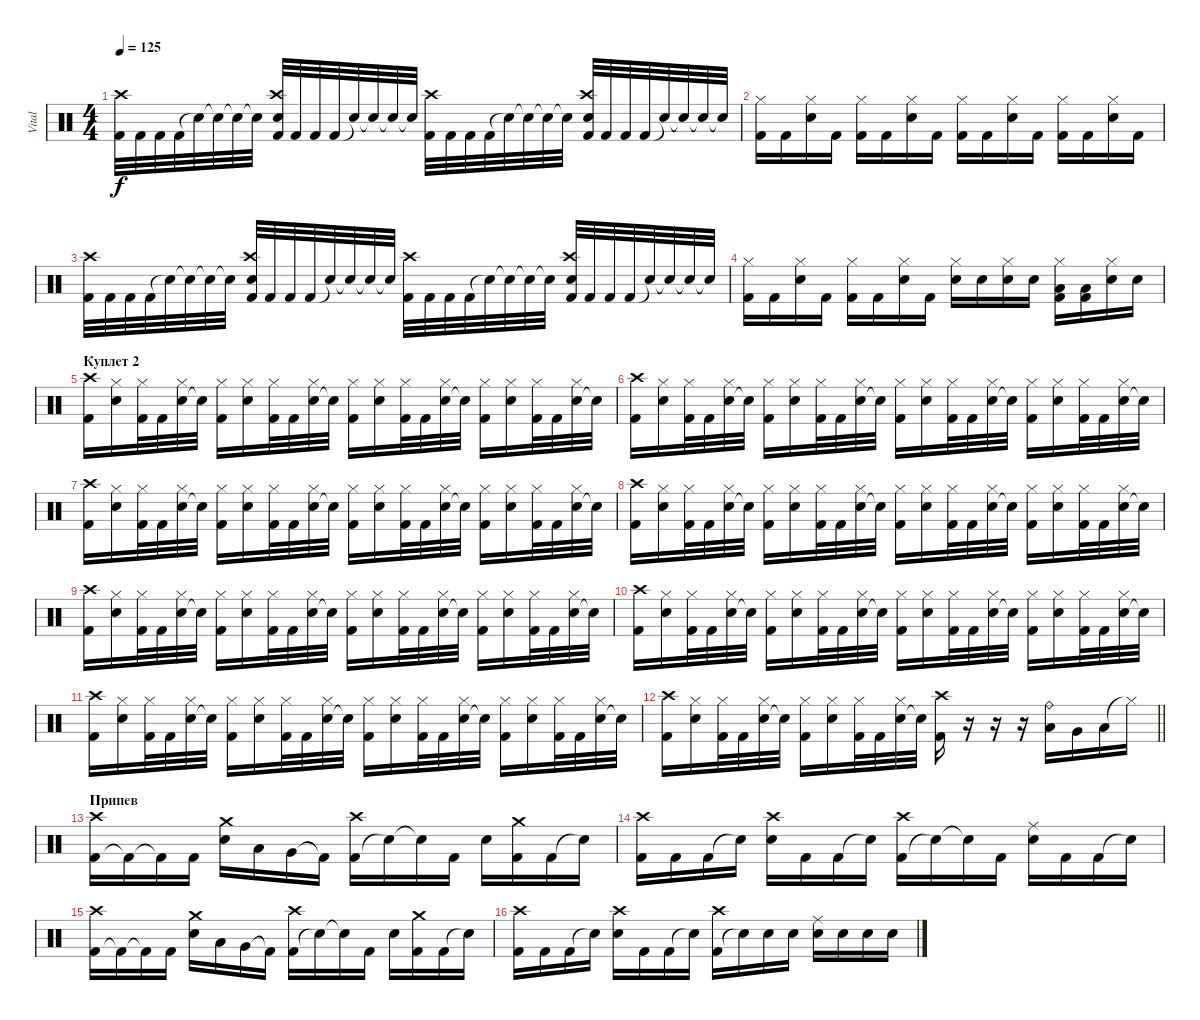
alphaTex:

\track ("Vital" "Vital") {instrument percussion}
\staff {score}
\articulation defaults
\ts (4 4)
\tempo 125
\clef neutral
\ks c
("Kick (hit) 2" "Crash high (hit)").32{dy f} "Kick (hit) 2".32 "Kick (hit) 2".32 "Kick (hit) 2".32 "Snare (hit)"{t}.32 "Snare (hit)"{t}.32 "Snare (hit)"{t}.32 "Snare (hit)"{t}.32 ("Kick (hit) 2" "Snare (hit) 2" "Crash high (hit)").32 "Kick (hit) 2".32 "Kick (hit) 2".32 "Kick (hit) 2".32 "Snare (hit)"{t}.32 "Snare (hit)"{t}.32 "Snare (hit)"{t}.32 "Snare (hit)"{t}.32 ("Kick (hit) 2" "Crash high (hit)").32 "Kick (hit) 2".32 "Kick (hit) 2".32 "Kick (hit) 2".32 "Snare (hit)"{t}.32 "Snare (hit)"{t}.32 "Snare (hit)"{t}.32 "Snare (hit)"{t}.32 ("Kick (hit) 2" "Snare (hit) 2" "Crash high (hit)").32 "Kick (hit) 2".32 "Kick (hit) 2".32 "Kick (hit) 2".32 "Snare (hit)"{t}.32 "Snare (hit)"{t}.32 "Snare (hit)"{t}.32 "Snare (hit)"{t}.32 |
("Kick (hit) 2" "Hi-Hat (closed)").16 "Kick (hit) 2".16 ("Snare (hit) 2" "Hi-Hat (closed)").16 "Kick (hit) 2".16 ("Kick (hit) 2" "Hi-Hat (closed)").16 "Kick (hit) 2".16 ("Snare (hit) 2" "Hi-Hat (closed)").16 "Kick (hit) 2".16 ("Kick (hit) 2" "Hi-Hat (closed)").16 "Kick (hit) 2".16 ("Snare (hit) 2" "Hi-Hat (closed)").16 "Kick (hit) 2".16 ("Kick (hit) 2" "Hi-Hat (closed)").16 "Kick (hit) 2".16 ("Snare (hit) 2" "Hi-Hat (closed)").16 "Kick (hit) 2".16 |
("Kick (hit) 2" "Crash high (hit)").32 "Kick (hit) 2".32 "Kick (hit) 2".32 "Kick (hit) 2".32 "Snare (hit)"{t}.32 "Snare (hit)"{t}.32 "Snare (hit)"{t}.32 "Snare (hit)"{t}.32 ("Kick (hit) 2" "Snare (hit) 2" "Crash high (hit)").32 "Kick (hit) 2".32 "Kick (hit) 2".32 "Kick (hit) 2".32 "Snare (hit)"{t}.32 "Snare (hit)"{t}.32 "Snare (hit)"{t}.32 "Snare (hit)"{t}.32 ("Kick (hit) 2" "Crash high (hit)").32 "Kick (hit) 2".32 "Kick (hit) 2".32 "Kick (hit) 2".32 "Snare (hit)"{t}.32 "Snare (hit)"{t}.32 "Snare (hit)"{t}.32 "Snare (hit)"{t}.32 ("Kick (hit) 2" "Snare (hit) 2" "Crash high (hit)").32 "Kick (hit) 2".32 "Kick (hit) 2".32 "Kick (hit) 2".32 "Snare (hit)"{t}.32 "Snare (hit)"{t}.32 "Snare (hit)"{t}.32 "Snare (hit)"{t}.32 |
("Kick (hit) 2" "Hi-Hat (closed)").16 "Kick (hit) 2".16 ("Snare (hit) 2" "Hi-Hat (closed)").16 "Kick (hit) 2".16 ("Kick (hit) 2" "Hi-Hat (closed)").16 "Kick (hit) 2".16 ("Snare (hit) 2" "Hi-Hat (closed)").16 "Kick (hit) 2".16 ("Snare (hit) 2" "Hi-Hat (closed)").16 "Snare (hit) 2".16 ("Snare (hit) 2" "Hi-Hat (closed)").16 "Snare (hit) 2".16 ("Low Floor Tom (hit)" "Kick (hit) 2" "Hi-Hat (closed)").16 ("Low Floor Tom (hit)" "Kick (hit) 2").16 ("Snare (hit) 2" "Hi-Hat (closed)").16 "Snare (hit) 2".16 |
\section ("" "Куплет 2")
("Kick (hit) 2" "Crash high (hit)").16 ("Snare (hit) 2" "Hi-Hat (closed)").16 ("Kick (hit) 2" "Hi-Hat (closed)").32 "Kick (hit) 2".32 ("Snare (hit) 2" "Hi-Hat (closed)").32 "Snare (hit) 2"{t}.32 ("Kick (hit) 2" "Hi-Hat (closed)").16 ("Snare (hit) 2" "Hi-Hat (closed)").16 ("Kick (hit) 2" "Hi-Hat (closed)").32 "Kick (hit) 2".32 ("Snare (hit) 2" "Hi-Hat (closed)").32 "Snare (hit)"{t}.32 ("Kick (hit) 2" "Hi-Hat (closed)").16 ("Snare (hit) 2" "Hi-Hat (closed)").16 ("Kick (hit) 2" "Hi-Hat (closed)").32 "Kick (hit) 2".32 ("Snare (hit) 2" "Hi-Hat (closed)").32 "Snare (hit)"{t}.32 ("Kick (hit) 2" "Hi-Hat (closed)").16 ("Snare (hit) 2" "Hi-Hat (closed)").16 ("Kick (hit) 2" "Hi-Hat (closed)").32 "Kick (hit) 2".32 ("Snare (hit) 2" "Hi-Hat (closed)").32 "Snare (hit)"{t}.32 |
("Kick (hit) 2" "Crash high (hit)").16 ("Snare (hit) 2" "Hi-Hat (closed)").16 ("Kick (hit) 2" "Hi-Hat (closed)").32 "Kick (hit) 2".32 ("Snare (hit) 2" "Hi-Hat (closed)").32 "Snare (hit) 2"{t}.32 ("Kick (hit) 2" "Hi-Hat (closed)").16 ("Snare (hit) 2" "Hi-Hat (closed)").16 ("Kick (hit) 2" "Hi-Hat (closed)").32 "Kick (hit) 2".32 ("Snare (hit) 2" "Hi-Hat (closed)").32 "Snare (hit)"{t}.32 ("Kick (hit) 2" "Hi-Hat (closed)").16 ("Snare (hit) 2" "Hi-Hat (closed)").16 ("Kick (hit) 2" "Hi-Hat (closed)").32 "Kick (hit) 2".32 ("Snare (hit) 2" "Hi-Hat (closed)").32 "Snare (hit)"{t}.32 ("Kick (hit) 2" "Hi-Hat (closed)").16 ("Snare (hit) 2" "Hi-Hat (closed)").16 ("Kick (hit) 2" "Hi-Hat (closed)").32 "Kick (hit) 2".32 ("Snare (hit) 2" "Hi-Hat (closed)").32 "Snare (hit)"{t}.32 |
("Kick (hit) 2" "Crash high (hit)").16 ("Snare (hit) 2" "Hi-Hat (closed)").16 ("Kick (hit) 2" "Hi-Hat (closed)").32 "Kick (hit) 2".32 ("Snare (hit) 2" "Hi-Hat (closed)").32 "Snare (hit) 2"{t}.32 ("Kick (hit) 2" "Hi-Hat (closed)").16 ("Snare (hit) 2" "Hi-Hat (closed)").16 ("Kick (hit) 2" "Hi-Hat (closed)").32 "Kick (hit) 2".32 ("Snare (hit) 2" "Hi-Hat (closed)").32 "Snare (hit)"{t}.32 ("Kick (hit) 2" "Hi-Hat (closed)").16 ("Snare (hit) 2" "Hi-Hat (closed)").16 ("Kick (hit) 2" "Hi-Hat (closed)").32 "Kick (hit) 2".32 ("Snare (hit) 2" "Hi-Hat (closed)").32 "Snare (hit)"{t}.32 ("Kick (hit) 2" "Hi-Hat (closed)").16 ("Snare (hit) 2" "Hi-Hat (closed)").16 ("Kick (hit) 2" "Hi-Hat (closed)").32 "Kick (hit) 2".32 ("Snare (hit) 2" "Hi-Hat (closed)").32 "Snare (hit)"{t}.32 |
("Kick (hit) 2" "Crash high (hit)").16 ("Snare (hit) 2" "Hi-Hat (closed)").16 ("Kick (hit) 2" "Hi-Hat (closed)").32 "Kick (hit) 2".32 ("Snare (hit) 2" "Hi-Hat (closed)").32 "Snare (hit) 2"{t}.32 ("Kick (hit) 2" "Hi-Hat (closed)").16 ("Snare (hit) 2" "Hi-Hat (closed)").16 ("Kick (hit) 2" "Hi-Hat (closed)").32 "Kick (hit) 2".32 ("Snare (hit) 2" "Hi-Hat (closed)").32 "Snare (hit)"{t}.32 ("Kick (hit) 2" "Hi-Hat (closed)").16 ("Snare (hit) 2" "Hi-Hat (closed)").16 ("Kick (hit) 2" "Hi-Hat (closed)").32 "Kick (hit) 2".32 ("Snare (hit) 2" "Hi-Hat (closed)").32 "Snare (hit)"{t}.32 ("Kick (hit) 2" "Hi-Hat (closed)").16 ("Snare (hit) 2" "Hi-Hat (closed)").16 ("Kick (hit) 2" "Hi-Hat (closed)").32 "Kick (hit) 2".32 ("Snare (hit) 2" "Hi-Hat (closed)").32 "Snare (hit)"{t}.32 |
("Kick (hit) 2" "Crash high (hit)").16 ("Snare (hit) 2" "Hi-Hat (closed)").16 ("Kick (hit) 2" "Hi-Hat (closed)").32 "Kick (hit) 2".32 ("Snare (hit) 2" "Hi-Hat (closed)").32 "Snare (hit) 2"{t}.32 ("Kick (hit) 2" "Hi-Hat (closed)").16 ("Snare (hit) 2" "Hi-Hat (closed)").16 ("Kick (hit) 2" "Hi-Hat (closed)").32 "Kick (hit) 2".32 ("Snare (hit) 2" "Hi-Hat (closed)").32 "Snare (hit)"{t}.32 ("Kick (hit) 2" "Hi-Hat (closed)").16 ("Snare (hit) 2" "Hi-Hat (closed)").16 ("Kick (hit) 2" "Hi-Hat (closed)").32 "Kick (hit) 2".32 ("Snare (hit) 2" "Hi-Hat (closed)").32 "Snare (hit)"{t}.32 ("Kick (hit) 2" "Hi-Hat (closed)").16 ("Snare (hit) 2" "Hi-Hat (closed)").16 ("Kick (hit) 2" "Hi-Hat (closed)").32 "Kick (hit) 2".32 ("Snare (hit) 2" "Hi-Hat (closed)").32 "Snare (hit)"{t}.32 |
("Kick (hit) 2" "Crash high (hit)").16 ("Snare (hit) 2" "Hi-Hat (closed)").16 ("Kick (hit) 2" "Hi-Hat (closed)").32 "Kick (hit) 2".32 ("Snare (hit) 2" "Hi-Hat (closed)").32 "Snare (hit) 2"{t}.32 ("Kick (hit) 2" "Hi-Hat (closed)").16 ("Snare (hit) 2" "Hi-Hat (closed)").16 ("Kick (hit) 2" "Hi-Hat (closed)").32 "Kick (hit) 2".32 ("Snare (hit) 2" "Hi-Hat (closed)").32 "Snare (hit)"{t}.32 ("Kick (hit) 2" "Hi-Hat (closed)").16 ("Snare (hit) 2" "Hi-Hat (closed)").16 ("Kick (hit) 2" "Hi-Hat (closed)").32 "Kick (hit) 2".32 ("Snare (hit) 2" "Hi-Hat (closed)").32 "Snare (hit)"{t}.32 ("Kick (hit) 2" "Hi-Hat (closed)").16 ("Snare (hit) 2" "Hi-Hat (closed)").16 ("Kick (hit) 2" "Hi-Hat (closed)").32 "Kick (hit) 2".32 ("Snare (hit) 2" "Hi-Hat (closed)").32 "Snare (hit)"{t}.32 |
("Kick (hit) 2" "Crash high (hit)").16 ("Snare (hit) 2" "Hi-Hat (closed)").16 ("Kick (hit) 2" "Hi-Hat (closed)").32 "Kick (hit) 2".32 ("Snare (hit) 2" "Hi-Hat (closed)").32 "Snare (hit) 2"{t}.32 ("Kick (hit) 2" "Hi-Hat (closed)").16 ("Snare (hit) 2" "Hi-Hat (closed)").16 ("Kick (hit) 2" "Hi-Hat (closed)").32 "Kick (hit) 2".32 ("Snare (hit) 2" "Hi-Hat (closed)").32 "Snare (hit)"{t}.32 ("Kick (hit) 2" "Hi-Hat (closed)").16 ("Snare (hit) 2" "Hi-Hat (closed)").16 ("Kick (hit) 2" "Hi-Hat (closed)").32 "Kick (hit) 2".32 ("Snare (hit) 2" "Hi-Hat (closed)").32 "Snare (hit)"{t}.32 ("Kick (hit) 2" "Hi-Hat (closed)").16 ("Snare (hit) 2" "Hi-Hat (closed)").16 ("Kick (hit) 2" "Hi-Hat (closed)").32 "Kick (hit) 2".32 ("Snare (hit) 2" "Hi-Hat (closed)").32 "Snare (hit)"{t}.32 |
\barLineRight lightlight
("Kick (hit) 2" "Crash high (hit)").16 ("Snare (hit) 2" "Hi-Hat (closed)").16 ("Kick (hit) 2" "Hi-Hat (closed)").32 "Kick (hit) 2".32 ("Snare (hit) 2" "Hi-Hat (closed)").32 "Snare (hit) 2"{t}.32 ("Kick (hit) 2" "Hi-Hat (closed)").16 ("Snare (hit) 2" "Hi-Hat (closed)").16 ("Kick (hit) 2" "Hi-Hat (closed)").32 "Kick (hit) 2".32 ("Snare (hit) 2" "Hi-Hat (closed)").32 "Snare (hit)"{t}.32 ("Kick (hit) 2" "Crash high (hit)").16 r.16 r.16 r.16 ("Low Tom (hit)" "Ride (bell)").16 "Very Low Tom (hit)".16 "Low Floor Tom (hit)".16 "Hi-Hat (closed)"{t}.16 |
\section ("" "Припев ")
("Kick (hit) 2" "Crash high (hit)").16 "Kick (hit) 2"{t}.16 "Kick (hit) 2"{t}.16 "Kick (hit) 2".16 ("Snare (hit) 2" "Crash medium (hit)").16 "Low Tom (hit)".16 "Very Low Tom (hit)".16 "Kick (hit) 2"{t}.16 ("Kick (hit) 2" "Crash high (hit)").16 "Snare (hit)"{t}.16 "Snare (hit)"{t}.16 "Kick (hit) 2".16 "Snare (hit) 2".16 ("Kick (hit) 2" "Crash medium (hit)").16 "Kick (hit) 2".16 "Snare (hit)"{t}.16 |
("Kick (hit) 2" "Crash high (hit)").16 "Kick (hit) 2".16 "Kick (hit) 2".16 "Snare (hit)"{t}.16 ("Snare (hit) 2" "Crash high (hit)").16 "Kick (hit) 2".16 "Kick (hit) 2".16 "Snare (hit)"{t}.16 ("Kick (hit) 2" "Crash high (hit)").16 "Snare (hit)"{t}.16 "Snare (hit)"{t}.16 "Kick (hit) 2".16 ("Snare (hit) 2" "Ride (middle)").16 "Kick (hit) 2".16 "Kick (hit) 2".16 "Snare (hit)"{t}.16 |
("Kick (hit) 2" "Crash high (hit)").16 "Kick (hit) 2"{t}.16 "Kick (hit) 2"{t}.16 "Kick (hit) 2".16 ("Snare (hit) 2" "Crash medium (hit)").16 "Low Tom (hit)".16 "Very Low Tom (hit)".16 "Kick (hit) 2"{t}.16 ("Kick (hit) 2" "Crash high (hit)").16 "Snare (hit)"{t}.16 "Snare (hit)"{t}.16 "Kick (hit) 2".16 "Snare (hit) 2".16 ("Kick (hit) 2" "Crash medium (hit)").16 "Kick (hit) 2".16 "Snare (hit)"{t}.16 |
("Kick (hit) 2" "Crash high (hit)").16 "Kick (hit) 2".16 "Kick (hit) 2".16 "Snare (hit)"{t}.16 ("Snare (hit) 2" "Crash high (hit)").16 "Kick (hit) 2".16 "Kick (hit) 2".16 "Snare (hit)"{t}.16 ("Kick (hit) 2" "Crash high (hit)").16 "Snare (hit)"{t}.16 "Snare (hit) 2".16 "Snare (hit) 2".16 ("Snare (hit) 2" "Ride (middle)").16 "Snare (hit) 2".16 "Snare (hit) 2".16 "Snare (hit) 2".16
